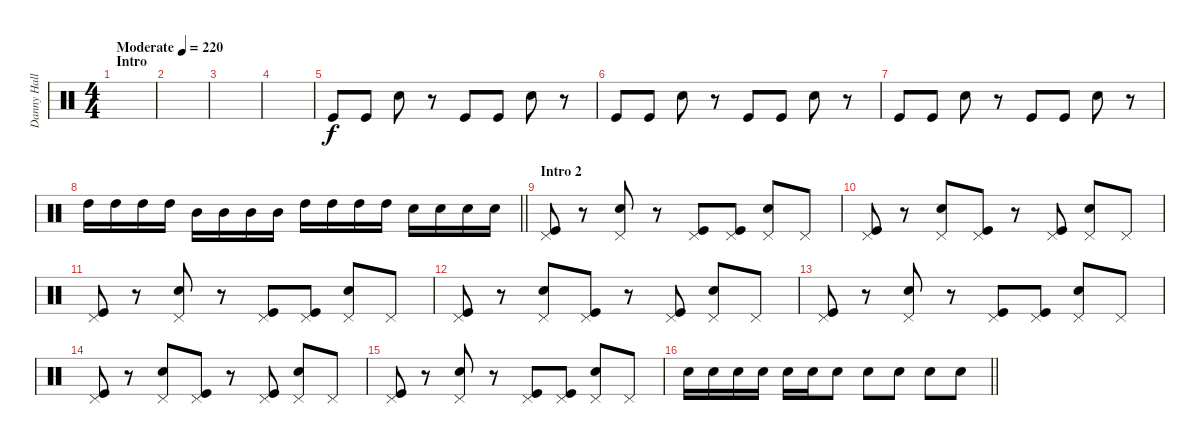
\track ("Danny Hall" "Danny Hall") {instrument percussion}
\staff {score}
\articulation defaults
\ts (4 4)
\section ("" "Intro")
\tempo (220 "Moderate")
\clef neutral
\ks c
|
|
|
|
"Kick (hit)".8 "Kick (hit)".8 "Snare (hit) 2".8 r.8 "Kick (hit)".8 "Kick (hit)".8 "Snare (hit) 2".8 r.8 |
"Kick (hit)".8 "Kick (hit)".8 "Snare (hit) 2".8 r.8 "Kick (hit)".8 "Kick (hit)".8 "Snare (hit) 2".8 r.8 |
"Kick (hit)".8 "Kick (hit)".8 "Snare (hit) 2".8 r.8 "Kick (hit)".8 "Kick (hit)".8 "Snare (hit) 2".8 r.8 |
\barLineRight lightlight "High Tom (hit)".16 "High Tom (hit)".16 "High Tom (hit)".16 "High Tom (hit)".16 "Mid Tom (hit)".16 "Mid Tom (hit)".16 "Mid Tom (hit)".16 "Mid Tom (hit)".16 "High Tom (hit)".16 "High Tom (hit)".16 "High Tom (hit)".16 "High Tom (hit)".16 "Snare (hit) 2".16 "Snare (hit) 2".16 "Snare (hit) 2".16 "Snare (hit) 2".16
|
\section ("" "Intro 2")
("Pedal Hi-Hat (hit)" "Kick (hit)").8 r.8 ("Pedal Hi-Hat (hit)" "Snare (hit) 2").8 r.8 ("Pedal Hi-Hat (hit)" "Kick (hit)").8 ("Pedal Hi-Hat (hit)" "Kick (hit)").8 ("Pedal Hi-Hat (hit)" "Snare (hit) 2").8 "Pedal Hi-Hat (hit)".8 |
("Pedal Hi-Hat (hit)" "Kick (hit)").8 r.8 ("Pedal Hi-Hat (hit)" "Snare (hit) 2").8 ("Pedal Hi-Hat (hit)" "Kick (hit)").8 r.8 ("Pedal Hi-Hat (hit)" "Kick (hit)").8 ("Pedal Hi-Hat (hit)" "Snare (hit) 2").8 "Pedal Hi-Hat (hit)".8 |
("Pedal Hi-Hat (hit)" "Kick (hit)").8 r.8 ("Pedal Hi-Hat (hit)" "Snare (hit) 2").8 r.8 ("Pedal Hi-Hat (hit)" "Kick (hit)").8 ("Pedal Hi-Hat (hit)" "Kick (hit)").8 ("Pedal Hi-Hat (hit)" "Snare (hit) 2").8 "Pedal Hi-Hat (hit)".8 |
("Pedal Hi-Hat (hit)" "Kick (hit)").8 r.8 ("Pedal Hi-Hat (hit)" "Snare (hit) 2").8 ("Pedal Hi-Hat (hit)" "Kick (hit)").8 r.8 ("Pedal Hi-Hat (hit)" "Kick (hit)").8 ("Pedal Hi-Hat (hit)" "Snare (hit) 2").8 "Pedal Hi-Hat (hit)".8 |
("Pedal Hi-Hat (hit)" "Kick (hit)").8 r.8 ("Pedal Hi-Hat (hit)" "Snare (hit) 2").8 r.8 ("Pedal Hi-Hat (hit)" "Kick (hit)").8 ("Pedal Hi-Hat (hit)" "Kick (hit)").8 ("Pedal Hi-Hat (hit)" "Snare (hit) 2").8 "Pedal Hi-Hat (hit)".8 |
("Pedal Hi-Hat (hit)" "Kick (hit)").8 r.8 ("Pedal Hi-Hat (hit)" "Snare (hit) 2").8 ("Pedal Hi-Hat (hit)" "Kick (hit)").8 r.8 ("Pedal Hi-Hat (hit)" "Kick (hit)").8 ("Pedal Hi-Hat (hit)" "Snare (hit) 2").8 "Pedal Hi-Hat (hit)".8 |
("Pedal Hi-Hat (hit)" "Kick (hit)").8 r.8 ("Pedal Hi-Hat (hit)" "Snare (hit) 2").8 r.8 ("Pedal Hi-Hat (hit)" "Kick (hit)").8 ("Pedal Hi-Hat (hit)" "Kick (hit)").8 ("Pedal Hi-Hat (hit)" "Snare (hit) 2").8 "Pedal Hi-Hat (hit)".8 |
\barLineRight lightlight "Snare (hit) 2".16 "Snare (hit) 2".16 "Snare (hit) 2".16 "Snare (hit) 2".16 "Snare (hit) 2".16 "Snare (hit) 2".16 "Snare (hit) 2".8 "Snare (hit) 2".8 "Snare (hit) 2".8 "Snare (hit) 2".8 "Snare (hit) 2".8
